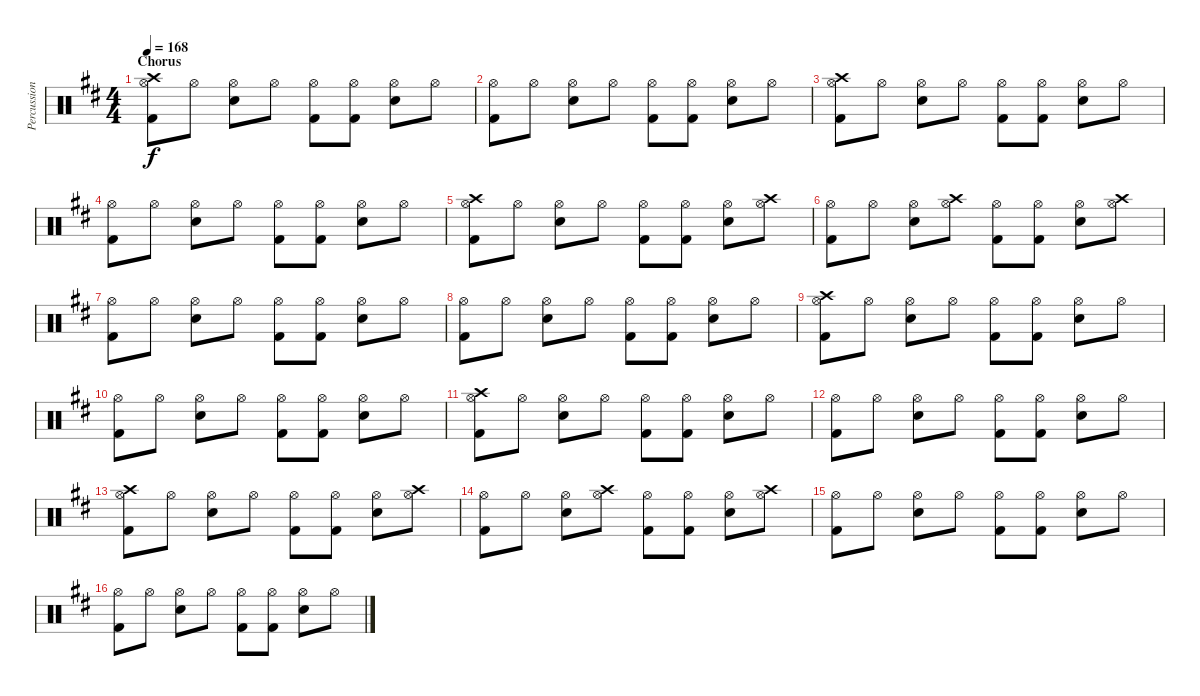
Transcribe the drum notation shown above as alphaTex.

\track ("Percussion" "Percussion") {instrument percussion}
\staff {score}
\articulation defaults
\ts (4 4)
\section ("" "Chorus")
\tempo 168
\clef neutral
\ks d
("Crash high (hit)" "Kick (hit) 2" "Hi-Hat (open)").8{dy f} "Hi-Hat (open)".8 ("Electric Snare (hit)" "Hi-Hat (open)").8 "Hi-Hat (open)".8 ("Kick (hit) 2" "Hi-Hat (open)").8 ("Kick (hit) 2" "Hi-Hat (open)").8 ("Electric Snare (hit)" "Hi-Hat (open)").8 "Hi-Hat (open)".8 |
("Kick (hit) 2" "Hi-Hat (open)").8 "Hi-Hat (open)".8 ("Electric Snare (hit)" "Hi-Hat (open)").8 "Hi-Hat (open)".8 ("Kick (hit) 2" "Hi-Hat (open)").8 ("Kick (hit) 2" "Hi-Hat (open)").8 ("Electric Snare (hit)" "Hi-Hat (open)").8 "Hi-Hat (open)".8 |
("Crash high (hit)" "Kick (hit) 2" "Hi-Hat (open)").8 "Hi-Hat (open)".8 ("Electric Snare (hit)" "Hi-Hat (open)").8 "Hi-Hat (open)".8 ("Kick (hit) 2" "Hi-Hat (open)").8 ("Kick (hit) 2" "Hi-Hat (open)").8 ("Electric Snare (hit)" "Hi-Hat (open)").8 "Hi-Hat (open)".8 |
("Kick (hit) 2" "Hi-Hat (open)").8 "Hi-Hat (open)".8 ("Electric Snare (hit)" "Hi-Hat (open)").8 "Hi-Hat (open)".8 ("Kick (hit) 2" "Hi-Hat (open)").8 ("Kick (hit) 2" "Hi-Hat (open)").8 ("Electric Snare (hit)" "Hi-Hat (open)").8 "Hi-Hat (open)".8 |
("Crash high (hit)" "Kick (hit) 2" "Hi-Hat (open)").8 "Hi-Hat (open)".8 ("Electric Snare (hit)" "Hi-Hat (open)").8 "Hi-Hat (open)".8 ("Kick (hit) 2" "Hi-Hat (open)").8 ("Kick (hit) 2" "Hi-Hat (open)").8 ("Electric Snare (hit)" "Hi-Hat (open)").8 ("Crash high (hit)" "Hi-Hat (open)").8 |
("Kick (hit) 2" "Hi-Hat (open)").8 "Hi-Hat (open)".8 ("Electric Snare (hit)" "Hi-Hat (open)").8 ("Crash high (hit)" "Hi-Hat (open)").8 ("Kick (hit) 2" "Hi-Hat (open)").8 ("Kick (hit) 2" "Hi-Hat (open)").8 ("Electric Snare (hit)" "Hi-Hat (open)").8 ("Crash high (hit)" "Hi-Hat (open)").8 |
("Kick (hit) 2" "Hi-Hat (open)").8 "Hi-Hat (open)".8 ("Electric Snare (hit)" "Hi-Hat (open)").8 "Hi-Hat (open)".8 ("Kick (hit) 2" "Hi-Hat (open)").8 ("Kick (hit) 2" "Hi-Hat (open)").8 ("Electric Snare (hit)" "Hi-Hat (open)").8 "Hi-Hat (open)".8 |
("Kick (hit) 2" "Hi-Hat (open)").8 "Hi-Hat (open)".8 ("Electric Snare (hit)" "Hi-Hat (open)").8 "Hi-Hat (open)".8 ("Kick (hit) 2" "Hi-Hat (open)").8 ("Kick (hit) 2" "Hi-Hat (open)").8 ("Electric Snare (hit)" "Hi-Hat (open)").8 "Hi-Hat (open)".8 |
("Crash high (hit)" "Kick (hit) 2" "Hi-Hat (open)").8 "Hi-Hat (open)".8 ("Electric Snare (hit)" "Hi-Hat (open)").8 "Hi-Hat (open)".8 ("Kick (hit) 2" "Hi-Hat (open)").8 ("Kick (hit) 2" "Hi-Hat (open)").8 ("Electric Snare (hit)" "Hi-Hat (open)").8 "Hi-Hat (open)".8 |
("Kick (hit) 2" "Hi-Hat (open)").8 "Hi-Hat (open)".8 ("Electric Snare (hit)" "Hi-Hat (open)").8 "Hi-Hat (open)".8 ("Kick (hit) 2" "Hi-Hat (open)").8 ("Kick (hit) 2" "Hi-Hat (open)").8 ("Electric Snare (hit)" "Hi-Hat (open)").8 "Hi-Hat (open)".8 |
("Crash high (hit)" "Kick (hit) 2" "Hi-Hat (open)").8 "Hi-Hat (open)".8 ("Electric Snare (hit)" "Hi-Hat (open)").8 "Hi-Hat (open)".8 ("Kick (hit) 2" "Hi-Hat (open)").8 ("Kick (hit) 2" "Hi-Hat (open)").8 ("Electric Snare (hit)" "Hi-Hat (open)").8 "Hi-Hat (open)".8 |
("Kick (hit) 2" "Hi-Hat (open)").8 "Hi-Hat (open)".8 ("Electric Snare (hit)" "Hi-Hat (open)").8 "Hi-Hat (open)".8 ("Kick (hit) 2" "Hi-Hat (open)").8 ("Kick (hit) 2" "Hi-Hat (open)").8 ("Electric Snare (hit)" "Hi-Hat (open)").8 "Hi-Hat (open)".8 |
("Crash high (hit)" "Kick (hit) 2" "Hi-Hat (open)").8 "Hi-Hat (open)".8 ("Electric Snare (hit)" "Hi-Hat (open)").8 "Hi-Hat (open)".8 ("Kick (hit) 2" "Hi-Hat (open)").8 ("Kick (hit) 2" "Hi-Hat (open)").8 ("Electric Snare (hit)" "Hi-Hat (open)").8 ("Crash high (hit)" "Hi-Hat (open)").8 |
("Kick (hit) 2" "Hi-Hat (open)").8 "Hi-Hat (open)".8 ("Electric Snare (hit)" "Hi-Hat (open)").8 ("Crash high (hit)" "Hi-Hat (open)").8 ("Kick (hit) 2" "Hi-Hat (open)").8 ("Kick (hit) 2" "Hi-Hat (open)").8 ("Electric Snare (hit)" "Hi-Hat (open)").8 ("Crash high (hit)" "Hi-Hat (open)").8 |
("Kick (hit) 2" "Hi-Hat (open)").8 "Hi-Hat (open)".8 ("Electric Snare (hit)" "Hi-Hat (open)").8 "Hi-Hat (open)".8 ("Kick (hit) 2" "Hi-Hat (open)").8 ("Kick (hit) 2" "Hi-Hat (open)").8 ("Electric Snare (hit)" "Hi-Hat (open)").8 "Hi-Hat (open)".8 |
("Kick (hit) 2" "Hi-Hat (open)").8 "Hi-Hat (open)".8 ("Electric Snare (hit)" "Hi-Hat (open)").8 "Hi-Hat (open)".8 ("Kick (hit) 2" "Hi-Hat (open)").8 ("Kick (hit) 2" "Hi-Hat (open)").8 ("Electric Snare (hit)" "Hi-Hat (open)").8 "Hi-Hat (open)".8
